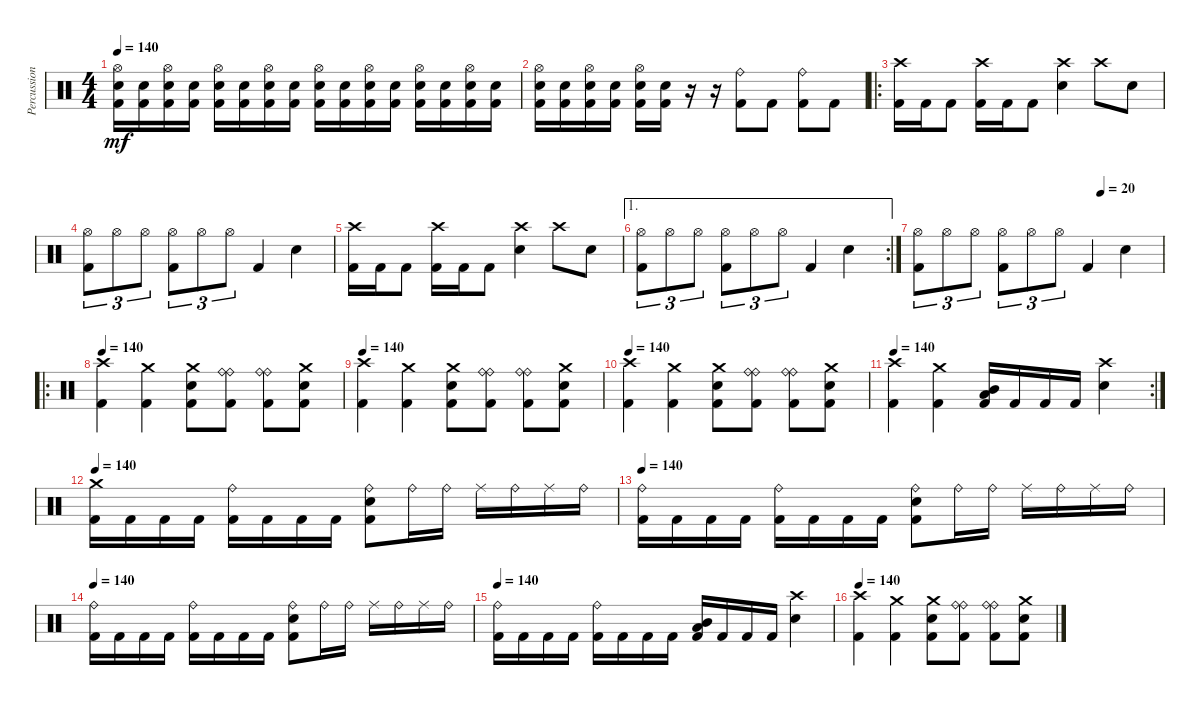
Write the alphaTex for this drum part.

\track ("Percussion" "Percussion") {instrument percussion}
\staff {score}
\articulation defaults
\ts (4 4)
\tempo 140
\clef neutral
\ks c
("Hi-Hat (open)" "Electric Snare (hit)" "Kick (hit) 2").16{dy mf} ("Electric Snare (hit)" "Kick (hit) 2").16 ("Hi-Hat (open)" "Electric Snare (hit)" "Kick (hit) 2").16 ("Electric Snare (hit)" "Kick (hit) 2").16 ("Hi-Hat (open)" "Electric Snare (hit)" "Kick (hit) 2").16 ("Electric Snare (hit)" "Kick (hit) 2").16 ("Hi-Hat (open)" "Electric Snare (hit)" "Kick (hit) 2").16 ("Electric Snare (hit)" "Kick (hit) 2").16 ("Hi-Hat (open)" "Electric Snare (hit)" "Kick (hit) 2").16 ("Electric Snare (hit)" "Kick (hit) 2").16 ("Hi-Hat (open)" "Electric Snare (hit)" "Kick (hit) 2").16 ("Electric Snare (hit)" "Kick (hit) 2").16 ("Hi-Hat (open)" "Electric Snare (hit)" "Kick (hit) 2").16 ("Electric Snare (hit)" "Kick (hit) 2").16 ("Hi-Hat (open)" "Electric Snare (hit)" "Kick (hit) 2").16 ("Electric Snare (hit)" "Kick (hit) 2").16 |
("Hi-Hat (open)" "Electric Snare (hit)" "Kick (hit) 2").16 ("Electric Snare (hit)" "Kick (hit) 2").16 ("Hi-Hat (open)" "Electric Snare (hit)" "Kick (hit) 2").16 ("Electric Snare (hit)" "Kick (hit) 2").16 ("Hi-Hat (open)" "Electric Snare (hit)" "Kick (hit) 2").16 ("Electric Snare (hit)" "Kick (hit) 2").16 r.16 r.16 ("Ride (bell)" "Kick (hit) 2").8 "Kick (hit) 2".8 ("Ride (bell)" "Kick (hit) 2").8 "Kick (hit) 2".8 |
\ro
("Crash high (hit)" "Kick (hit) 2").16 "Kick (hit) 2".16 "Kick (hit) 2".8 ("Crash high (hit)" "Kick (hit) 2").16 "Kick (hit) 2".16 "Kick (hit) 2".8 ("Crash high (hit)" "Electric Snare (hit)").4 "Crash high (hit)".8 "Electric Snare (hit)".8 |
("Hi-Hat (open)" "Kick (hit) 2").8{tu (3 2)} "Hi-Hat (open)".8{tu (3 2)} "Hi-Hat (open)".8{tu (3 2)} ("Hi-Hat (open)" "Kick (hit) 2").8{tu (3 2)} "Hi-Hat (open)".8{tu (3 2)} "Hi-Hat (open)".8{tu (3 2)} "Kick (hit) 2".4 "Electric Snare (hit)".4 |
("Crash high (hit)" "Kick (hit) 2").16 "Kick (hit) 2".16 "Kick (hit) 2".8 ("Crash high (hit)" "Kick (hit) 2").16 "Kick (hit) 2".16 "Kick (hit) 2".8 ("Crash high (hit)" "Electric Snare (hit)").4 "Crash high (hit)".8 "Electric Snare (hit)".8 |
\ae 1
\rc 2
("Hi-Hat (open)" "Kick (hit) 2").8{tu (3 2)} "Hi-Hat (open)".8{tu (3 2)} "Hi-Hat (open)".8{tu (3 2)} ("Hi-Hat (open)" "Kick (hit) 2").8{tu (3 2)} "Hi-Hat (open)".8{tu (3 2)} "Hi-Hat (open)".8{tu (3 2)} "Kick (hit) 2".4 "Electric Snare (hit)".4 |
\tempo (20 0.75)
("Hi-Hat (open)" "Kick (hit) 2").8{tu (3 2)} "Hi-Hat (open)".8{tu (3 2)} "Hi-Hat (open)".8{tu (3 2)} ("Hi-Hat (open)" "Kick (hit) 2").8{tu (3 2)} "Hi-Hat (open)".8{tu (3 2)} "Hi-Hat (open)".8{tu (3 2)} "Kick (hit) 2".4 "Electric Snare (hit)".4 |
\ro
\tempo 140
("Crash high (hit)" "Kick (hit) 2").4 ("Crash medium (hit)" "Kick (hit) 2").4 ("Crash medium (hit)" "Electric Snare (hit)" "Kick (hit) 2").8 ("Ride (bell)" "Ride (bell)" "Kick (hit) 2").8 ("Ride (bell)" "Ride (bell)" "Kick (hit) 2").8 ("Crash medium (hit)" "Electric Snare (hit)" "Kick (hit) 2").8 |
\tempo 140
("Crash high (hit)" "Kick (hit) 2").4 ("Crash medium (hit)" "Kick (hit) 2").4 ("Crash medium (hit)" "Electric Snare (hit)" "Kick (hit) 2").8 ("Ride (bell)" "Ride (bell)" "Kick (hit) 2").8 ("Ride (bell)" "Ride (bell)" "Kick (hit) 2").8 ("Crash medium (hit)" "Electric Snare (hit)" "Kick (hit) 2").8 |
\tempo 140
("Crash high (hit)" "Kick (hit) 2").4 ("Crash medium (hit)" "Kick (hit) 2").4 ("Crash medium (hit)" "Electric Snare (hit)" "Kick (hit) 2").8 ("Ride (bell)" "Ride (bell)" "Kick (hit) 2").8 ("Ride (bell)" "Ride (bell)" "Kick (hit) 2").8 ("Crash medium (hit)" "Electric Snare (hit)" "Kick (hit) 2").8 |
\rc 2
\tempo 140
("Crash high (hit)" "Kick (hit) 2").4 ("Crash medium (hit)" "Kick (hit) 2").4 ("Mid Tom (hit)" "Low Tom (hit)" "Kick (hit) 2").16 "Kick (hit) 2".16 "Kick (hit) 2".16 "Kick (hit) 2".16 ("Crash high (hit)" "Electric Snare (hit)").4 |
\tempo 140
("Crash medium (hit)" "Kick (hit) 2").16 "Kick (hit) 2".16 "Kick (hit) 2".16 "Kick (hit) 2".16 ("Ride (bell)" "Kick (hit) 2").16 "Kick (hit) 2".16 "Kick (hit) 2".16 "Kick (hit) 2".16 ("Ride (bell)" "Electric Snare (hit)" "Kick (hit) 2").8 "Ride (bell)".16 "Ride (bell)".16 "Ride (middle)".16 "Ride (bell)".16 "Ride (middle)".16 "Ride (bell)".16 |
\tempo 140
("Ride (bell)" "Kick (hit) 2").16 "Kick (hit) 2".16 "Kick (hit) 2".16 "Kick (hit) 2".16 ("Ride (bell)" "Kick (hit) 2").16 "Kick (hit) 2".16 "Kick (hit) 2".16 "Kick (hit) 2".16 ("Ride (bell)" "Electric Snare (hit)" "Kick (hit) 2").8 "Ride (bell)".16 "Ride (bell)".16 "Ride (middle)".16 "Ride (bell)".16 "Ride (middle)".16 "Ride (bell)".16 |
\tempo 140
("Ride (bell)" "Kick (hit) 2").16 "Kick (hit) 2".16 "Kick (hit) 2".16 "Kick (hit) 2".16 ("Ride (bell)" "Kick (hit) 2").16 "Kick (hit) 2".16 "Kick (hit) 2".16 "Kick (hit) 2".16 ("Ride (bell)" "Electric Snare (hit)" "Kick (hit) 2").8 "Ride (bell)".16 "Ride (bell)".16 "Ride (middle)".16 "Ride (bell)".16 "Ride (middle)".16 "Ride (bell)".16 |
\tempo 140
("Ride (bell)" "Kick (hit) 2").16 "Kick (hit) 2".16 "Kick (hit) 2".16 "Kick (hit) 2".16 ("Ride (bell)" "Kick (hit) 2").16 "Kick (hit) 2".16 "Kick (hit) 2".16 "Kick (hit) 2".16 ("Mid Tom (hit)" "Low Tom (hit)" "Kick (hit) 2").16 "Kick (hit) 2".16 "Kick (hit) 2".16 "Kick (hit) 2".16 ("Crash high (hit)" "Electric Snare (hit)").4 |
\tempo 140
("Crash high (hit)" "Kick (hit) 2").4 ("Crash medium (hit)" "Kick (hit) 2").4 ("Crash medium (hit)" "Electric Snare (hit)" "Kick (hit) 2").8 ("Ride (bell)" "Ride (bell)" "Kick (hit) 2").8 ("Ride (bell)" "Ride (bell)" "Kick (hit) 2").8 ("Crash medium (hit)" "Electric Snare (hit)" "Kick (hit) 2").8
